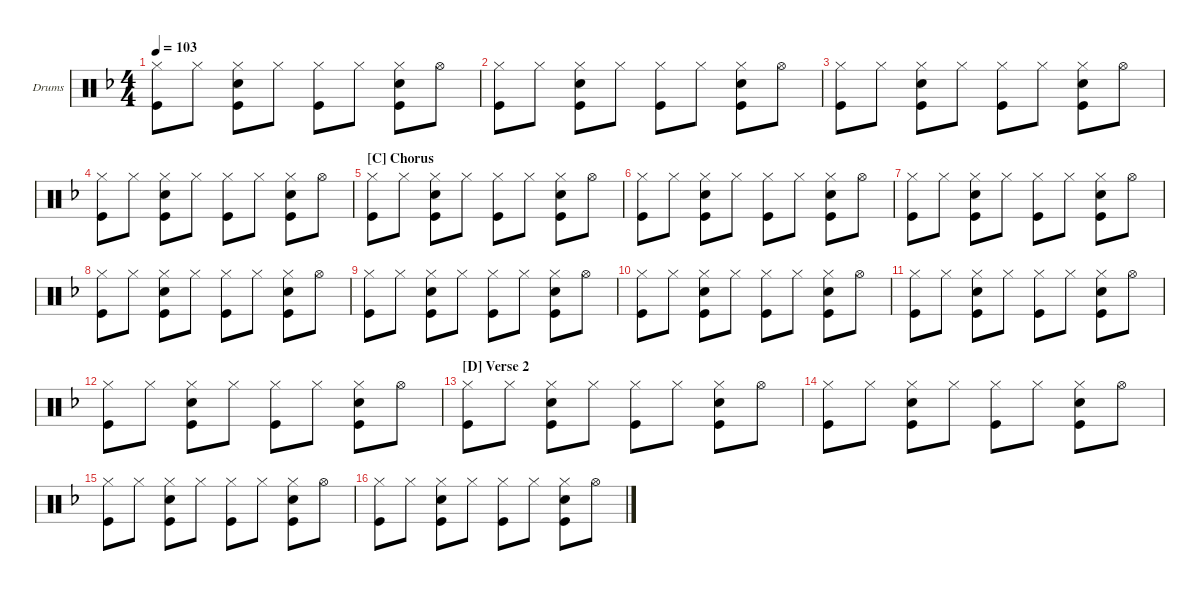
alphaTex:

\hideDynamics
\bracketExtendMode groupsimilarinstruments
\firstSystemTrackNameOrientation horizontal
\otherSystemsTrackNameOrientation horizontal
\track ("Drumkit" "Drums") {multiBarRest instrument percussion}
\staff {score}
\articulation defaults
\ts (4 4)
\tempo 103
\clef neutral
\ks f
("Hi-Hat (closed)" "Kick (hit)").8{dy f} "Hi-Hat (closed)".8 ("Hi-Hat (closed)" "Snare (hit) 2" "Kick (hit)").8 "Hi-Hat (closed)".8 ("Hi-Hat (closed)" "Kick (hit)").8 "Hi-Hat (closed)".8 ("Hi-Hat (closed)" "Snare (hit) 2" "Kick (hit)").8 "Hi-Hat (open)".8 |
("Hi-Hat (closed)" "Kick (hit)").8 "Hi-Hat (closed)".8 ("Hi-Hat (closed)" "Snare (hit) 2" "Kick (hit)").8 "Hi-Hat (closed)".8 ("Hi-Hat (closed)" "Kick (hit)").8 "Hi-Hat (closed)".8 ("Hi-Hat (closed)" "Snare (hit) 2" "Kick (hit)").8 "Hi-Hat (open)".8 |
("Hi-Hat (closed)" "Kick (hit)").8 "Hi-Hat (closed)".8 ("Hi-Hat (closed)" "Snare (hit) 2" "Kick (hit)").8 "Hi-Hat (closed)".8 ("Hi-Hat (closed)" "Kick (hit)").8 "Hi-Hat (closed)".8 ("Hi-Hat (closed)" "Snare (hit) 2" "Kick (hit)").8 "Hi-Hat (open)".8 |
("Hi-Hat (closed)" "Kick (hit)").8 "Hi-Hat (closed)".8 ("Hi-Hat (closed)" "Snare (hit) 2" "Kick (hit)").8 "Hi-Hat (closed)".8 ("Hi-Hat (closed)" "Kick (hit)").8 "Hi-Hat (closed)".8 ("Hi-Hat (closed)" "Snare (hit) 2" "Kick (hit)").8 "Hi-Hat (open)".8 |
\section ("C" "Chorus")
("Hi-Hat (closed)" "Kick (hit)").8 "Hi-Hat (closed)".8 ("Hi-Hat (closed)" "Snare (hit) 2" "Kick (hit)").8 "Hi-Hat (closed)".8 ("Hi-Hat (closed)" "Kick (hit)").8 "Hi-Hat (closed)".8 ("Hi-Hat (closed)" "Snare (hit) 2" "Kick (hit)").8 "Hi-Hat (open)".8 |
("Hi-Hat (closed)" "Kick (hit)").8 "Hi-Hat (closed)".8 ("Hi-Hat (closed)" "Snare (hit) 2" "Kick (hit)").8 "Hi-Hat (closed)".8 ("Hi-Hat (closed)" "Kick (hit)").8 "Hi-Hat (closed)".8 ("Hi-Hat (closed)" "Snare (hit) 2" "Kick (hit)").8 "Hi-Hat (open)".8 |
("Hi-Hat (closed)" "Kick (hit)").8 "Hi-Hat (closed)".8 ("Hi-Hat (closed)" "Snare (hit) 2" "Kick (hit)").8 "Hi-Hat (closed)".8 ("Hi-Hat (closed)" "Kick (hit)").8 "Hi-Hat (closed)".8 ("Hi-Hat (closed)" "Snare (hit) 2" "Kick (hit)").8 "Hi-Hat (open)".8 |
("Hi-Hat (closed)" "Kick (hit)").8 "Hi-Hat (closed)".8 ("Hi-Hat (closed)" "Snare (hit) 2" "Kick (hit)").8 "Hi-Hat (closed)".8 ("Hi-Hat (closed)" "Kick (hit)").8 "Hi-Hat (closed)".8 ("Hi-Hat (closed)" "Snare (hit) 2" "Kick (hit)").8 "Hi-Hat (open)".8 |
("Hi-Hat (closed)" "Kick (hit)").8 "Hi-Hat (closed)".8 ("Hi-Hat (closed)" "Snare (hit) 2" "Kick (hit)").8 "Hi-Hat (closed)".8 ("Hi-Hat (closed)" "Kick (hit)").8 "Hi-Hat (closed)".8 ("Hi-Hat (closed)" "Snare (hit) 2" "Kick (hit)").8 "Hi-Hat (open)".8 |
("Hi-Hat (closed)" "Kick (hit)").8 "Hi-Hat (closed)".8 ("Hi-Hat (closed)" "Snare (hit) 2" "Kick (hit)").8 "Hi-Hat (closed)".8 ("Hi-Hat (closed)" "Kick (hit)").8 "Hi-Hat (closed)".8 ("Hi-Hat (closed)" "Snare (hit) 2" "Kick (hit)").8 "Hi-Hat (open)".8 |
("Hi-Hat (closed)" "Kick (hit)").8 "Hi-Hat (closed)".8 ("Hi-Hat (closed)" "Snare (hit) 2" "Kick (hit)").8 "Hi-Hat (closed)".8 ("Hi-Hat (closed)" "Kick (hit)").8 "Hi-Hat (closed)".8 ("Hi-Hat (closed)" "Snare (hit) 2" "Kick (hit)").8 "Hi-Hat (open)".8 |
("Hi-Hat (closed)" "Kick (hit)").8 "Hi-Hat (closed)".8 ("Hi-Hat (closed)" "Snare (hit) 2" "Kick (hit)").8 "Hi-Hat (closed)".8 ("Hi-Hat (closed)" "Kick (hit)").8 "Hi-Hat (closed)".8 ("Hi-Hat (closed)" "Snare (hit) 2" "Kick (hit)").8 "Hi-Hat (open)".8 |
\section ("D" "Verse 2")
("Hi-Hat (closed)" "Kick (hit)").8 "Hi-Hat (closed)".8 ("Hi-Hat (closed)" "Snare (hit) 2" "Kick (hit)").8 "Hi-Hat (closed)".8 ("Hi-Hat (closed)" "Kick (hit)").8 "Hi-Hat (closed)".8 ("Hi-Hat (closed)" "Snare (hit) 2" "Kick (hit)").8 "Hi-Hat (open)".8 |
("Hi-Hat (closed)" "Kick (hit)").8 "Hi-Hat (closed)".8 ("Hi-Hat (closed)" "Snare (hit) 2" "Kick (hit)").8 "Hi-Hat (closed)".8 ("Hi-Hat (closed)" "Kick (hit)").8 "Hi-Hat (closed)".8 ("Hi-Hat (closed)" "Snare (hit) 2" "Kick (hit)").8 "Hi-Hat (open)".8 |
("Hi-Hat (closed)" "Kick (hit)").8 "Hi-Hat (closed)".8 ("Hi-Hat (closed)" "Snare (hit) 2" "Kick (hit)").8 "Hi-Hat (closed)".8 ("Hi-Hat (closed)" "Kick (hit)").8 "Hi-Hat (closed)".8 ("Hi-Hat (closed)" "Snare (hit) 2" "Kick (hit)").8 "Hi-Hat (open)".8 |
("Hi-Hat (closed)" "Kick (hit)").8 "Hi-Hat (closed)".8 ("Hi-Hat (closed)" "Snare (hit) 2" "Kick (hit)").8 "Hi-Hat (closed)".8 ("Hi-Hat (closed)" "Kick (hit)").8 "Hi-Hat (closed)".8 ("Hi-Hat (closed)" "Snare (hit) 2" "Kick (hit)").8 "Hi-Hat (open)".8
